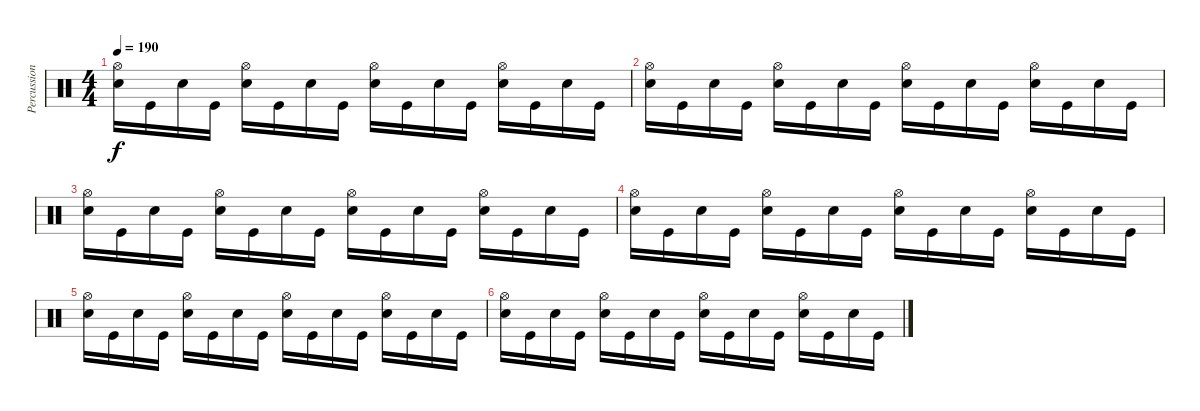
\track ("Percussion" "Percussion") {instrument percussion}
\staff {score}
\articulation defaults
\ts (4 4)
\tempo 190
\clef neutral
\ks c
("Snare (hit) 2" "Hi-Hat (open)").16{dy f} "Kick (hit)".16 "Snare (hit) 2".16 "Kick (hit)".16 ("Snare (hit) 2" "Hi-Hat (open)").16 "Kick (hit)".16 "Snare (hit) 2".16 "Kick (hit)".16 ("Snare (hit) 2" "Hi-Hat (open)").16 "Kick (hit)".16 "Snare (hit) 2".16 "Kick (hit)".16 ("Snare (hit) 2" "Hi-Hat (open)").16 "Kick (hit)".16 "Snare (hit) 2".16 "Kick (hit)".16 |
("Snare (hit) 2" "Hi-Hat (open)").16 "Kick (hit)".16 "Snare (hit) 2".16 "Kick (hit)".16 ("Snare (hit) 2" "Hi-Hat (open)").16 "Kick (hit)".16 "Snare (hit) 2".16 "Kick (hit)".16 ("Snare (hit) 2" "Hi-Hat (open)").16 "Kick (hit)".16 "Snare (hit) 2".16 "Kick (hit)".16 ("Snare (hit) 2" "Hi-Hat (open)").16 "Kick (hit)".16 "Snare (hit) 2".16 "Kick (hit)".16 |
("Snare (hit) 2" "Hi-Hat (open)").16 "Kick (hit)".16 "Snare (hit) 2".16 "Kick (hit)".16 ("Snare (hit) 2" "Hi-Hat (open)").16 "Kick (hit)".16 "Snare (hit) 2".16 "Kick (hit)".16 ("Snare (hit) 2" "Hi-Hat (open)").16 "Kick (hit)".16 "Snare (hit) 2".16 "Kick (hit)".16 ("Snare (hit) 2" "Hi-Hat (open)").16 "Kick (hit)".16 "Snare (hit) 2".16 "Kick (hit)".16 |
("Snare (hit) 2" "Hi-Hat (open)").16 "Kick (hit)".16 "Snare (hit) 2".16 "Kick (hit)".16 ("Snare (hit) 2" "Hi-Hat (open)").16 "Kick (hit)".16 "Snare (hit) 2".16 "Kick (hit)".16 ("Snare (hit) 2" "Hi-Hat (open)").16 "Kick (hit)".16 "Snare (hit) 2".16 "Kick (hit)".16 ("Snare (hit) 2" "Hi-Hat (open)").16 "Kick (hit)".16 "Snare (hit) 2".16 "Kick (hit)".16 |
("Snare (hit) 2" "Hi-Hat (open)").16 "Kick (hit)".16 "Snare (hit) 2".16 "Kick (hit)".16 ("Snare (hit) 2" "Hi-Hat (open)").16 "Kick (hit)".16 "Snare (hit) 2".16 "Kick (hit)".16 ("Snare (hit) 2" "Hi-Hat (open)").16 "Kick (hit)".16 "Snare (hit) 2".16 "Kick (hit)".16 ("Snare (hit) 2" "Hi-Hat (open)").16 "Kick (hit)".16 "Snare (hit) 2".16 "Kick (hit)".16 |
("Snare (hit) 2" "Hi-Hat (open)").16 "Kick (hit)".16 "Snare (hit) 2".16 "Kick (hit)".16 ("Snare (hit) 2" "Hi-Hat (open)").16 "Kick (hit)".16 "Snare (hit) 2".16 "Kick (hit)".16 ("Snare (hit) 2" "Hi-Hat (open)").16 "Kick (hit)".16 "Snare (hit) 2".16 "Kick (hit)".16 ("Snare (hit) 2" "Hi-Hat (open)").16 "Kick (hit)".16 "Snare (hit) 2".16 "Kick (hit)".16
